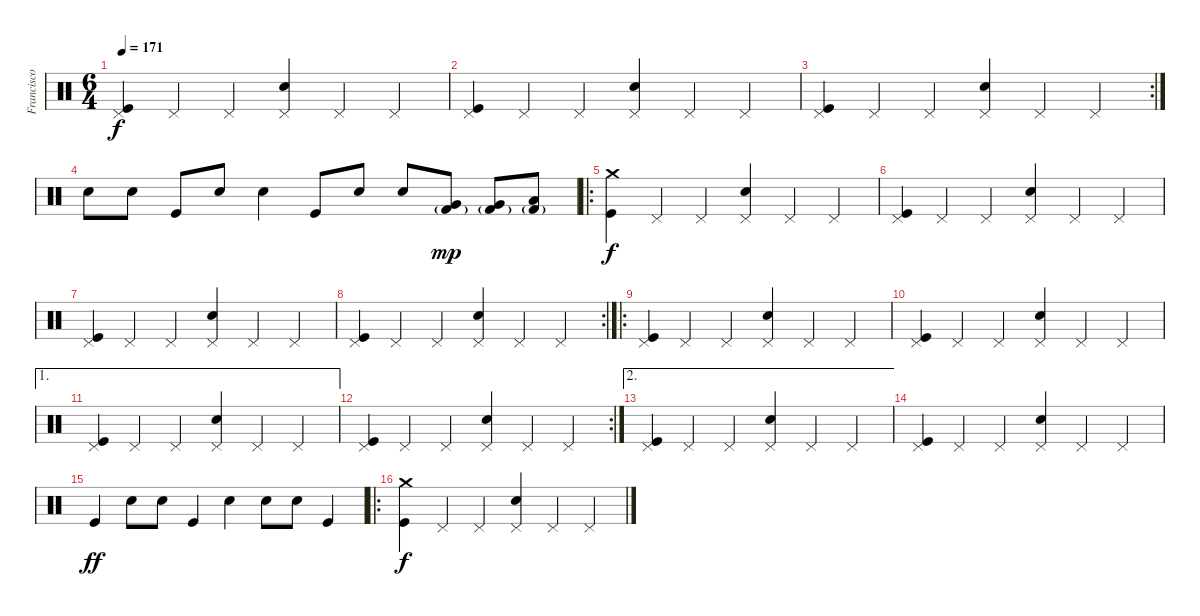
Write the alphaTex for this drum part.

\track ("Francisco González" "Francisco ") {instrument percussion}
\staff {score}
\articulation defaults
\ts (6 4)
\tempo 171
\clef neutral
\ks c
("Pedal Hi-Hat (hit)" "Kick (hit)").4{dy f} "Pedal Hi-Hat (hit)".4 "Pedal Hi-Hat (hit)".4 ("Pedal Hi-Hat (hit)" "Electric Snare (hit)").4 "Pedal Hi-Hat (hit)".4 "Pedal Hi-Hat (hit)".4 |
("Pedal Hi-Hat (hit)" "Kick (hit)").4 "Pedal Hi-Hat (hit)".4 "Pedal Hi-Hat (hit)".4 ("Pedal Hi-Hat (hit)" "Electric Snare (hit)").4 "Pedal Hi-Hat (hit)".4 "Pedal Hi-Hat (hit)".4 |
\rc 2
("Pedal Hi-Hat (hit)" "Kick (hit)").4 "Pedal Hi-Hat (hit)".4 "Pedal Hi-Hat (hit)".4 ("Pedal Hi-Hat (hit)" "Electric Snare (hit)").4 "Pedal Hi-Hat (hit)".4 "Pedal Hi-Hat (hit)".4 |
"Electric Snare (hit)".8 "Electric Snare (hit)".8 "Kick (hit)".8 "Electric Snare (hit)".8 "Electric Snare (hit)".4 "Kick (hit)".8 "Electric Snare (hit)".8 "Electric Snare (hit)".8 ("Kick (hit) 2"{g} "Very Low Tom (hit)").8{dy mp} ("Kick (hit) 2"{g} "Very Low Tom (hit)").8 ("Kick (hit) 2"{g} "Low Floor Tom (hit)").8 |
\ro
("Crash medium (hit)" "Kick (hit)").4{dy f} "Pedal Hi-Hat (hit)".4 "Pedal Hi-Hat (hit)".4 ("Pedal Hi-Hat (hit)" "Electric Snare (hit)").4 "Pedal Hi-Hat (hit)".4 "Pedal Hi-Hat (hit)".4 |
("Pedal Hi-Hat (hit)" "Kick (hit)").4 "Pedal Hi-Hat (hit)".4 "Pedal Hi-Hat (hit)".4 ("Pedal Hi-Hat (hit)" "Electric Snare (hit)").4 "Pedal Hi-Hat (hit)".4 "Pedal Hi-Hat (hit)".4 |
("Pedal Hi-Hat (hit)" "Kick (hit)").4 "Pedal Hi-Hat (hit)".4 "Pedal Hi-Hat (hit)".4 ("Pedal Hi-Hat (hit)" "Electric Snare (hit)").4 "Pedal Hi-Hat (hit)".4 "Pedal Hi-Hat (hit)".4 |
\rc 2
("Pedal Hi-Hat (hit)" "Kick (hit)").4 "Pedal Hi-Hat (hit)".4 "Pedal Hi-Hat (hit)".4 ("Pedal Hi-Hat (hit)" "Electric Snare (hit)").4 "Pedal Hi-Hat (hit)".4 "Pedal Hi-Hat (hit)".4 |
\ro
("Pedal Hi-Hat (hit)" "Kick (hit)").4 "Pedal Hi-Hat (hit)".4 "Pedal Hi-Hat (hit)".4 ("Pedal Hi-Hat (hit)" "Electric Snare (hit)").4 "Pedal Hi-Hat (hit)".4 "Pedal Hi-Hat (hit)".4 |
("Pedal Hi-Hat (hit)" "Kick (hit)").4 "Pedal Hi-Hat (hit)".4 "Pedal Hi-Hat (hit)".4 ("Pedal Hi-Hat (hit)" "Electric Snare (hit)").4 "Pedal Hi-Hat (hit)".4 "Pedal Hi-Hat (hit)".4 |
\ae 1
("Pedal Hi-Hat (hit)" "Kick (hit)").4 "Pedal Hi-Hat (hit)".4 "Pedal Hi-Hat (hit)".4 ("Pedal Hi-Hat (hit)" "Electric Snare (hit)").4 "Pedal Hi-Hat (hit)".4 "Pedal Hi-Hat (hit)".4 |
\rc 2
("Pedal Hi-Hat (hit)" "Kick (hit)").4 "Pedal Hi-Hat (hit)".4 "Pedal Hi-Hat (hit)".4 ("Pedal Hi-Hat (hit)" "Electric Snare (hit)").4 "Pedal Hi-Hat (hit)".4 "Pedal Hi-Hat (hit)".4 |
\ae 2
("Pedal Hi-Hat (hit)" "Kick (hit)").4 "Pedal Hi-Hat (hit)".4 "Pedal Hi-Hat (hit)".4 ("Pedal Hi-Hat (hit)" "Electric Snare (hit)").4 "Pedal Hi-Hat (hit)".4 "Pedal Hi-Hat (hit)".4 |
("Pedal Hi-Hat (hit)" "Kick (hit)").4 "Pedal Hi-Hat (hit)".4 "Pedal Hi-Hat (hit)".4 ("Pedal Hi-Hat (hit)" "Electric Snare (hit)").4 "Pedal Hi-Hat (hit)".4 "Pedal Hi-Hat (hit)".4 |
"Kick (hit)".4{dy ff} "Electric Snare (hit)".8 "Electric Snare (hit)".8 "Kick (hit)".4 "Electric Snare (hit)".4 "Electric Snare (hit)".8 "Electric Snare (hit)".8 "Kick (hit)".4 |
\ro
("Crash medium (hit)" "Kick (hit)").4{dy f} "Pedal Hi-Hat (hit)".4 "Pedal Hi-Hat (hit)".4 ("Pedal Hi-Hat (hit)" "Electric Snare (hit)").4 "Pedal Hi-Hat (hit)".4 "Pedal Hi-Hat (hit)".4
